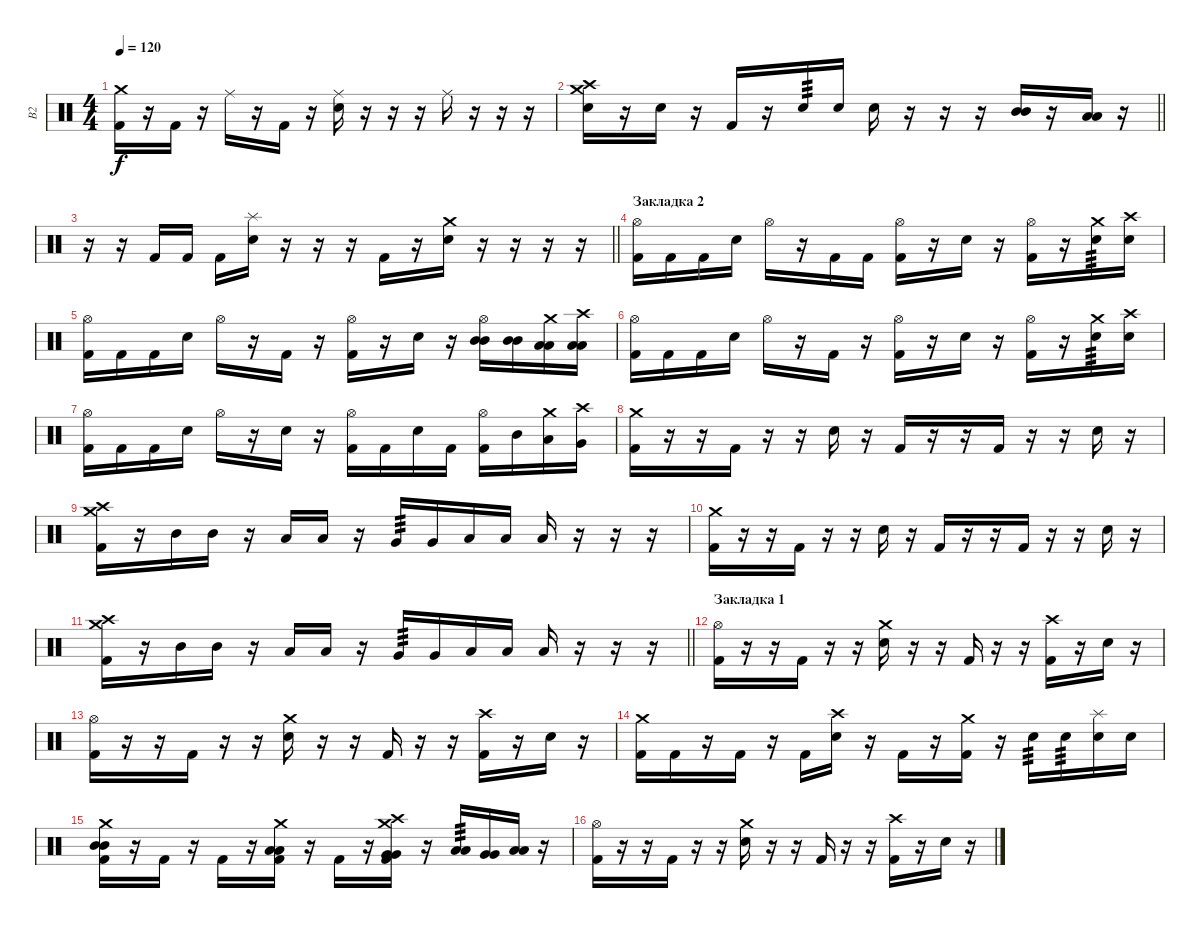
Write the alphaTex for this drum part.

\track ("В2" "В2") {instrument percussion}
\staff {score}
\articulation defaults
\ts (4 4)
\tempo 120
\clef neutral
\ks c
("Crash medium (hit)" "Kick (hit) 2").16{dy f} r.16 "Kick (hit) 2".16 r.16 "Ride (middle)".16 r.16 "Kick (hit) 2".16 r.16 ("Ride (middle)" "Snare (hit) 2").16 r.16 r.16 r.16 "Ride (middle)".16 r.16 r.16 r.16 |
\barLineRight lightlight
("Crash medium (hit)" "Crash high (hit)" "Snare (hit) 2").16 r.16 "Snare (hit) 2".16 r.16 "Kick (hit) 2".16 r.16 "Snare (hit) 2".16{tp 3} "Snare (hit) 2".16 "Snare (hit) 2".16 r.16 r.16 r.16 ("Mid Tom (hit)" "Mid Tom (hit)").16 r.16 ("Low Tom (hit)" "Low Tom (hit)").16 r.16 |
\barLineRight lightlight
r.16 r.16 "Kick (hit) 2".16 "Kick (hit) 2".16 "Kick (hit) 2".16 ("Splash (hit)" "Snare (hit) 2").16 r.16 r.16 r.16 "Kick (hit) 2".16 r.16 ("Crash medium (hit)" "Snare (hit) 2").16 r.16 r.16 r.16 r.16 |
\section ("" "Закладка 2")
("Hi-Hat (open)" "Kick (hit) 2").16 "Kick (hit) 2".16 "Kick (hit) 2".16 "Snare (hit) 2".16 "Hi-Hat (open)".16 r.16 "Kick (hit) 2".16 "Kick (hit) 2".16 ("Hi-Hat (open)" "Kick (hit) 2").16 r.16 "Snare (hit) 2".16 r.16 ("Hi-Hat (open)" "Kick (hit) 2").16 r.16 ("Crash medium (hit)" "Snare (hit) 2").16{tp 3} ("Crash high (hit)" "Snare (hit) 2").16 |
("Hi-Hat (open)" "Kick (hit) 2").16 "Kick (hit) 2".16 "Kick (hit) 2".16 "Snare (hit) 2".16 "Hi-Hat (open)".16 r.16 "Kick (hit) 2".16 r.16 ("Hi-Hat (open)" "Kick (hit) 2").16 r.16 "Snare (hit) 2".16 r.16 ("Hi-Hat (open)" "Mid Tom (hit)" "Mid Tom (hit)").16 ("Mid Tom (hit)" "Mid Tom (hit)").16 ("Crash medium (hit)" "Low Tom (hit)" "Low Tom (hit)").16 ("Crash high (hit)" "Low Tom (hit)" "Low Tom (hit)").16 |
("Hi-Hat (open)" "Kick (hit) 2").16 "Kick (hit) 2".16 "Kick (hit) 2".16 "Snare (hit) 2".16 "Hi-Hat (open)".16 r.16 "Kick (hit) 2".16 r.16 ("Hi-Hat (open)" "Kick (hit) 2").16 r.16 "Snare (hit) 2".16 r.16 ("Hi-Hat (open)" "Kick (hit) 2").16 r.16 ("Crash medium (hit)" "Snare (hit) 2").16{tp 3} ("Crash high (hit)" "Snare (hit) 2").16 |
("Hi-Hat (open)" "Kick (hit) 2").16 "Kick (hit) 2".16 "Kick (hit) 2".16 "Snare (hit) 2".16 "Hi-Hat (open)".16 r.16 "Snare (hit) 2".16 r.16 ("Hi-Hat (open)" "Kick (hit) 2").16 "Kick (hit) 2".16 "Snare (hit) 2".16 "Kick (hit) 2".16 ("Hi-Hat (open)" "Kick (hit) 2").16 "Mid Tom (hit)".16 ("Crash medium (hit)" "Low Tom (hit)").16 ("Crash high (hit)" "Very Low Tom (hit)").16 |
("Crash medium (hit)" "Kick (hit) 2").16 r.16 r.16 "Kick (hit) 2".16 r.16 r.16 "Snare (hit) 2".16 r.16 "Kick (hit) 2".16 r.16 r.16 "Kick (hit) 2".16 r.16 r.16 "Snare (hit) 2".16 r.16 |
("Crash high (hit)" "Crash medium (hit)" "Kick (hit) 2").16 r.16 "Mid Tom (hit)".16 "Mid Tom (hit)".16 r.16 "Low Tom (hit)".16 "Low Tom (hit)".16 r.16 "Very Low Tom (hit)".16{tp 3} "Very Low Tom (hit)".16 "Low Floor Tom (hit)".16 "Low Floor Tom (hit)".16 "Low Floor Tom (hit)".16 r.16 r.16 r.16 |
("Crash medium (hit)" "Kick (hit) 2").16 r.16 r.16 "Kick (hit) 2".16 r.16 r.16 "Snare (hit) 2".16 r.16 "Kick (hit) 2".16 r.16 r.16 "Kick (hit) 2".16 r.16 r.16 "Snare (hit) 2".16 r.16 |
\barLineRight lightlight
("Crash high (hit)" "Crash medium (hit)" "Kick (hit) 2").16 r.16 "Mid Tom (hit)".16 "Mid Tom (hit)".16 r.16 "Low Tom (hit)".16 "Low Tom (hit)".16 r.16 "Very Low Tom (hit)".16{tp 3} "Very Low Tom (hit)".16 "Low Floor Tom (hit)".16 "Low Floor Tom (hit)".16 "Low Floor Tom (hit)".16 r.16 r.16 r.16 |
\section ("" "Закладка 1")
("Hi-Hat (open)" "Kick (hit) 2").16 r.16 r.16 "Kick (hit) 2".16 r.16 r.16 ("Crash medium (hit)" "Snare (hit) 2").16 r.16 r.16 "Kick (hit) 2".16 r.16 r.16 ("Crash high (hit)" "Kick (hit) 2").16 r.16 "Snare (hit) 2".16 r.16 |
("Hi-Hat (open)" "Kick (hit) 2").16 r.16 r.16 "Kick (hit) 2".16 r.16 r.16 ("Crash medium (hit)" "Snare (hit) 2").16 r.16 r.16 "Kick (hit) 2".16 r.16 r.16 ("Crash high (hit)" "Kick (hit) 2").16 r.16 "Snare (hit) 2".16 r.16 |
("Crash medium (hit)" "Kick (hit) 2").16 "Kick (hit) 2".16 r.16 "Kick (hit) 2".16 r.16 "Kick (hit) 2".16 ("Crash high (hit)" "Snare (hit) 2").16 r.16 "Kick (hit) 2".16 r.16 ("Crash medium (hit)" "Kick (hit) 2").16 r.16 "Snare (hit) 2".16{tp 3} "Snare (hit) 2".16{tp 3} ("Splash (hit)" "Snare (hit) 2").16 "Snare (hit) 2".16 |
("Crash medium (hit)" "Mid Tom (hit)" "Mid Tom (hit)" "Kick (hit) 2").16 r.16 "Kick (hit) 2".16 r.16 "Kick (hit) 2".16 r.16 ("Crash medium (hit)" "Low Tom (hit)" "Low Tom (hit)" "Kick (hit) 2").16 r.16 "Kick (hit) 2".16 r.16 ("Crash high (hit)" "Crash medium (hit)" "Very Low Tom (hit)" "Very Low Tom (hit)" "Kick (hit) 2").16 r.16 ("Low Tom (hit)" "Low Tom (hit)").16{tp 3} ("Very Low Tom (hit)" "Very Low Tom (hit)").16 ("Low Floor Tom (hit)" "Low Floor Tom (hit)").16 r.16 |
("Hi-Hat (open)" "Kick (hit) 2").16 r.16 r.16 "Kick (hit) 2".16 r.16 r.16 ("Crash medium (hit)" "Snare (hit) 2").16 r.16 r.16 "Kick (hit) 2".16 r.16 r.16 ("Crash high (hit)" "Kick (hit) 2").16 r.16 "Snare (hit) 2".16 r.16
